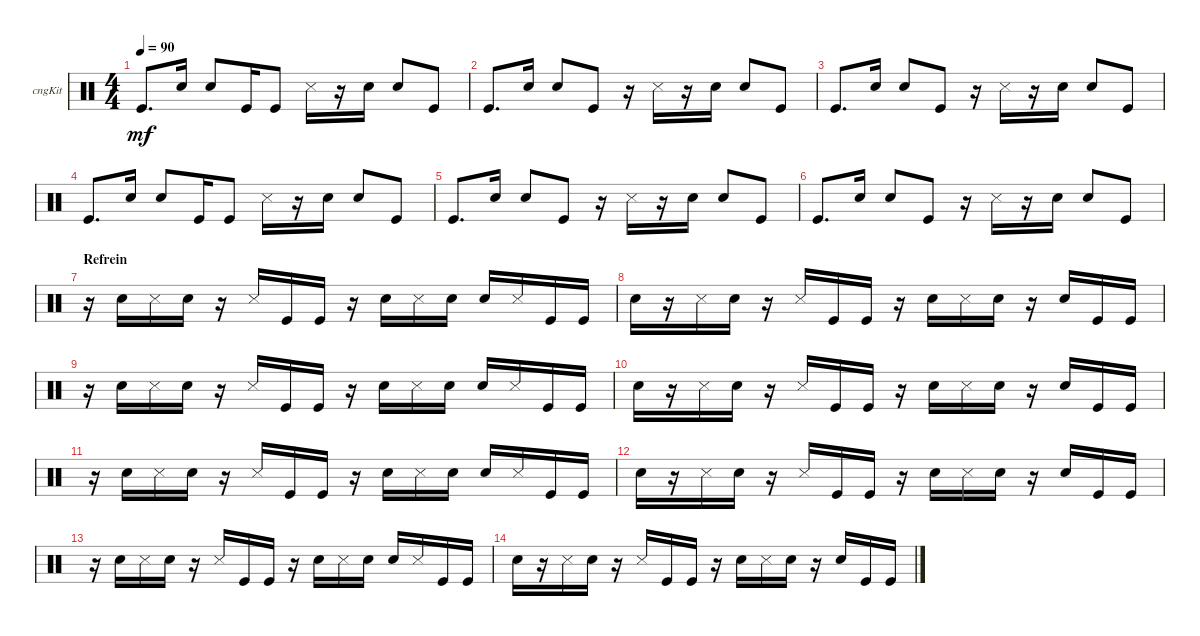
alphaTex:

\defaultSystemsLayout 4
\bracketExtendMode groupsimilarinstruments
\firstSystemTrackNameOrientation horizontal
\otherSystemsTrackNameOrientation horizontal
\track ("Congas" "cngKit") {instrument percussion}
\staff {score}
\articulation defaults
\ts (4 4)
\tempo 90
\clef neutral
\scale
0.333333
\ks c "Kick (hit)".8{d dy mf} "Snare (hit) 2".16 "Snare (hit) 2".8 "Kick (hit)".16 "Kick (hit)".8 "Snare (side stick) 3".16
r.16 "Snare (hit) 2".16 "Snare (hit) 2".8 "Kick (hit)".8 |
\scale
0.333333 "Kick (hit)".8{d} "Snare (hit) 2".16 "Snare (hit) 2".8 "Kick (hit)".8 r.16 "Snare (side stick) 3".16 r.16 "Snare (hit) 2".16 "Snare (hit) 2".8 "Kick (hit)".8 |
\scale
0.333333 "Kick (hit)".8{d} "Snare (hit) 2".16 "Snare (hit) 2".8 "Kick (hit)".8 r.16 "Snare (side stick) 3".16 r.16 "Snare (hit) 2".16 "Snare (hit) 2".8 "Kick (hit)".8 |
\scale
0.333333 "Kick (hit)".8{d} "Snare (hit) 2".16 "Snare (hit) 2".8 "Kick (hit)".16 "Kick (hit)".8 "Snare (side stick) 3".16 r.16 "Snare (hit) 2".16 "Snare (hit) 2".8 "Kick (hit)".8 |
\scale
0.333333 "Kick (hit)".8{d} "Snare (hit) 2".16 "Snare (hit) 2".8 "Kick (hit)".8 r.16 "Snare (side stick) 3".16 r.16 "Snare (hit) 2".16 "Snare (hit) 2".8 "Kick (hit)".8 |
\scale
0.333333 "Kick (hit)".8{d} "Snare (hit) 2".16 "Snare (hit) 2".8 "Kick (hit)".8 r.16 "Snare (side stick) 3".16 r.16 "Snare (hit) 2".16 "Snare (hit) 2".8 "Kick (hit)".8 |
\section ("" "Refrein")
\scale
0.333333 r.16 "Snare (hit) 2".16 "Snare (side stick) 3".16 "Snare (hit) 2".16 r.16 "Snare (side stick) 3".16 "Kick (hit)".16 "Kick (hit)".16 r.16 "Snare (hit) 2".16 "Snare (side stick) 3".16 "Snare (hit) 2".16 "Snare (hit) 2".16 "Snare (side stick) 3".16 "Kick (hit)".16 "Kick (hit)".16 |
\scale
0.333333 "Snare (hit) 2".16 r.16 "Snare (side stick) 3".16 "Snare (hit) 2".16 r.16 "Snare (side stick) 3".16 "Kick (hit)".16 "Kick (hit)".16 r.16 "Snare (hit) 2".16 "Snare (side stick) 3".16 "Snare (hit) 2".16 r.16 "Snare (hit) 2".16 "Kick (hit)".16 "Kick (hit)".16 |
\scale
0.333333 r.16 "Snare (hit) 2".16 "Snare (side stick) 3".16 "Snare (hit) 2".16 r.16 "Snare (side stick) 3".16 "Kick (hit)".16 "Kick (hit)".16 r.16 "Snare (hit) 2".16 "Snare (side stick) 3".16 "Snare (hit) 2".16 "Snare (hit) 2".16 "Snare (side stick) 3".16 "Kick (hit)".16 "Kick (hit)".16 |
\scale
0.333333 "Snare (hit) 2".16 r.16 "Snare (side stick) 3".16 "Snare (hit) 2".16 r.16 "Snare (side stick) 3".16 "Kick (hit)".16 "Kick (hit)".16 r.16 "Snare (hit) 2".16 "Snare (side stick) 3".16 "Snare (hit) 2".16 r.16 "Snare (hit) 2".16 "Kick (hit)".16 "Kick (hit)".16 |
\scale
0.333333 r.16 "Snare (hit) 2".16 "Snare (side stick) 3".16 "Snare (hit) 2".16 r.16 "Snare (side stick) 3".16 "Kick (hit)".16 "Kick (hit)".16 r.16 "Snare (hit) 2".16 "Snare (side stick) 3".16 "Snare (hit) 2".16 "Snare (hit) 2".16 "Snare (side stick) 3".16 "Kick (hit)".16 "Kick (hit)".16 |
\scale
0.333333 "Snare (hit) 2".16 r.16 "Snare (side stick) 3".16 "Snare (hit) 2".16 r.16 "Snare (side stick) 3".16 "Kick (hit)".16 "Kick (hit)".16 r.16 "Snare (hit) 2".16 "Snare (side stick) 3".16 "Snare (hit) 2".16 r.16 "Snare (hit) 2".16 "Kick (hit)".16 "Kick (hit)".16 |
\scale
0.333333 r.16 "Snare (hit) 2".16 "Snare (side stick) 3".16 "Snare (hit) 2".16 r.16 "Snare (side stick) 3".16 "Kick (hit)".16 "Kick (hit)".16 r.16 "Snare (hit) 2".16 "Snare (side stick) 3".16 "Snare (hit) 2".16 "Snare (hit) 2".16 "Snare (side stick) 3".16 "Kick (hit)".16 "Kick (hit)".16 |
\scale
0.333333 "Snare (hit) 2".16 r.16 "Snare (side stick) 3".16 "Snare (hit) 2".16 r.16 "Snare (side stick) 3".16 "Kick (hit)".16 "Kick (hit)".16 r.16 "Snare (hit) 2".16 "Snare (side stick) 3".16 "Snare (hit) 2".16 r.16 "Snare (hit) 2".16 "Kick (hit)".16 "Kick (hit)".16 |
\scale
0.333333
